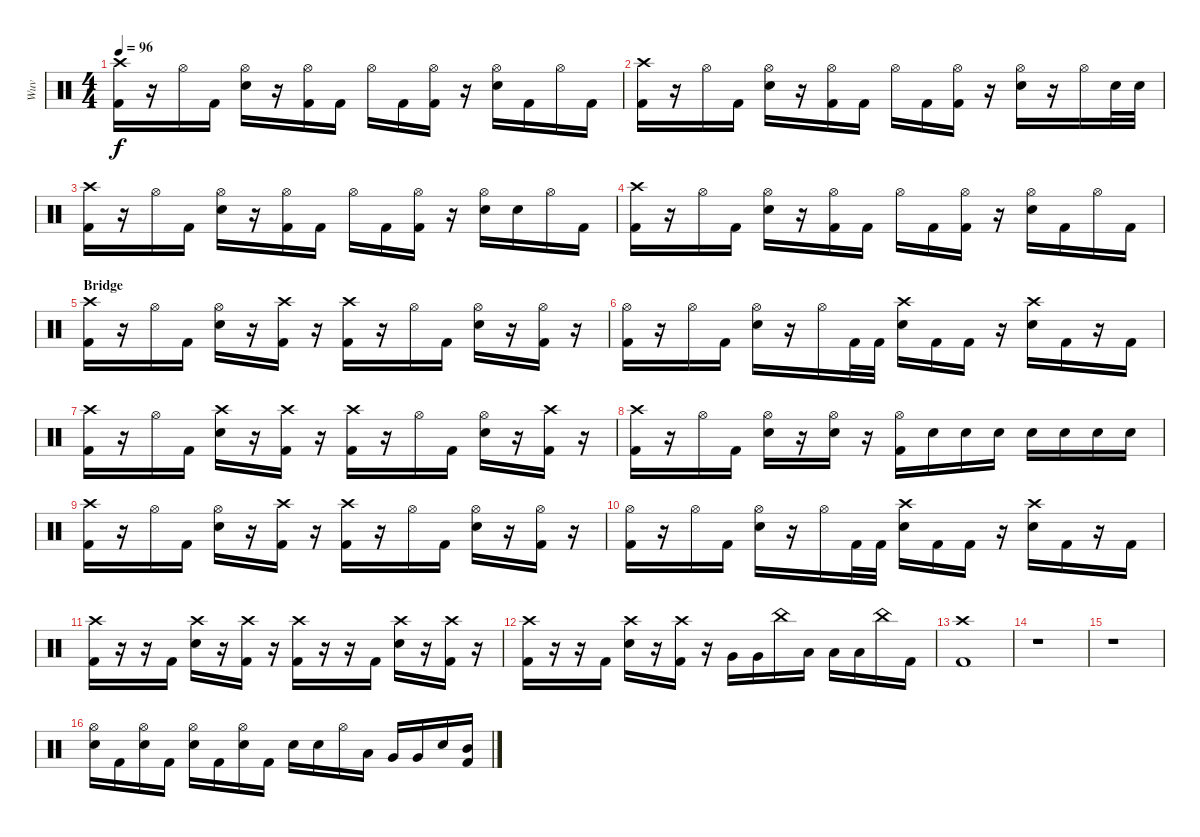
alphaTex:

\track ("Wuv" "Wuv") {instrument percussion}
\staff {score}
\articulation defaults
\ts (4 4)
\tempo 96
\clef neutral
\ks c
("Crash high (hit)" "Kick (hit) 2").16{dy f} r.16 "Hi-Hat (open)".16 "Kick (hit) 2".16 ("Hi-Hat (open)" "Snare (hit) 2").16 r.16 ("Hi-Hat (open)" "Kick (hit) 2").16 "Kick (hit) 2".16 "Hi-Hat (open)".16 "Kick (hit) 2".16 ("Hi-Hat (open)" "Kick (hit) 2").16 r.16 ("Hi-Hat (open)" "Snare (hit) 2").16 "Kick (hit) 2".16 "Hi-Hat (open)".16 "Kick (hit) 2".16 |
("Crash high (hit)" "Kick (hit) 2").16 r.16 "Hi-Hat (open)".16 "Kick (hit) 2".16 ("Hi-Hat (open)" "Snare (hit) 2").16 r.16 ("Hi-Hat (open)" "Kick (hit) 2").16 "Kick (hit) 2".16 "Hi-Hat (open)".16 "Kick (hit) 2".16 ("Hi-Hat (open)" "Kick (hit) 2").16 r.16 ("Hi-Hat (open)" "Snare (hit) 2").16 r.16 "Hi-Hat (open)".16 "Snare (hit) 2".32 "Snare (hit) 2".32 |
("Crash high (hit)" "Kick (hit) 2").16 r.16 "Hi-Hat (open)".16 "Kick (hit) 2".16 ("Hi-Hat (open)" "Snare (hit) 2").16 r.16 ("Hi-Hat (open)" "Kick (hit) 2").16 "Kick (hit) 2".16 "Hi-Hat (open)".16 "Kick (hit) 2".16 ("Hi-Hat (open)" "Kick (hit) 2").16 r.16 ("Hi-Hat (open)" "Snare (hit) 2").16 "Snare (hit) 2".16 "Hi-Hat (open)".16 "Kick (hit) 2".16 |
("Crash high (hit)" "Kick (hit) 2").16 r.16 "Hi-Hat (open)".16 "Kick (hit) 2".16 ("Hi-Hat (open)" "Snare (hit) 2").16 r.16 ("Hi-Hat (open)" "Kick (hit) 2").16 "Kick (hit) 2".16 "Hi-Hat (open)".16 "Kick (hit) 2".16 ("Hi-Hat (open)" "Kick (hit) 2").16 r.16 ("Hi-Hat (open)" "Snare (hit) 2").16 "Kick (hit) 2".16 "Hi-Hat (open)".16 "Kick (hit) 2".16 |
\section ("" "Bridge")
("Crash high (hit)" "Kick (hit) 2").16 r.16 "Hi-Hat (open)".16 "Kick (hit) 2".16 ("Hi-Hat (open)" "Snare (hit) 2").16 r.16 ("Crash high (hit)" "Kick (hit) 2").16 r.16 ("Crash high (hit)" "Kick (hit) 2").16 r.16 "Hi-Hat (open)".16 "Kick (hit) 2".16 ("Hi-Hat (open)" "Snare (hit) 2").16 r.16 ("Hi-Hat (open)" "Kick (hit) 2").16 r.16 |
("Hi-Hat (open)" "Kick (hit) 2").16 r.16 "Hi-Hat (open)".16 "Kick (hit) 2".16 ("Hi-Hat (open)" "Snare (hit) 2").16 r.16 "Hi-Hat (open)".16 "Kick (hit) 2".32 "Kick (hit) 2".32 ("Crash high (hit)" "Snare (hit) 2").16 "Kick (hit) 2".16 "Kick (hit) 2".16 r.16 ("Crash high (hit)" "Snare (hit) 2").16 "Kick (hit) 2".16 r.16 "Kick (hit) 2".16 |
("Crash high (hit)" "Kick (hit) 2").16 r.16 "Hi-Hat (open)".16 "Kick (hit) 2".16 ("Crash high (hit)" "Snare (hit) 2").16 r.16 ("Crash high (hit)" "Kick (hit) 2").16 r.16 ("Crash high (hit)" "Kick (hit) 2").16 r.16 "Hi-Hat (open)".16 "Kick (hit) 2".16 ("Hi-Hat (open)" "Snare (hit) 2").16 r.16 ("Crash high (hit)" "Kick (hit) 2").16 r.16 |
("Crash high (hit)" "Kick (hit) 2").16 r.16 "Hi-Hat (open)".16 "Kick (hit) 2".16 ("Hi-Hat (open)" "Snare (hit) 2").16 r.16 ("Hi-Hat (open)" "Snare (hit) 2").16 r.16 ("Hi-Hat (open)" "Kick (hit) 2").16 "Snare (hit) 2".16 "Snare (hit) 2".16 "Snare (hit) 2".16 "Snare (hit) 2".16 "Snare (hit) 2".16 "Snare (hit) 2".16 "Snare (hit) 2".16 |
("Crash high (hit)" "Kick (hit) 2").16 r.16 "Hi-Hat (open)".16 "Kick (hit) 2".16 ("Hi-Hat (open)" "Snare (hit) 2").16 r.16 ("Crash high (hit)" "Kick (hit) 2").16 r.16 ("Crash high (hit)" "Kick (hit) 2").16 r.16 "Hi-Hat (open)".16 "Kick (hit) 2".16 ("Hi-Hat (open)" "Snare (hit) 2").16 r.16 ("Hi-Hat (open)" "Kick (hit) 2").16 r.16 |
("Hi-Hat (open)" "Kick (hit) 2").16 r.16 "Hi-Hat (open)".16 "Kick (hit) 2".16 ("Hi-Hat (open)" "Snare (hit) 2").16 r.16 "Hi-Hat (open)".16 "Kick (hit) 2".32 "Kick (hit) 2".32 ("Crash high (hit)" "Snare (hit) 2").16 "Kick (hit) 2".16 "Kick (hit) 2".16 r.16 ("Crash high (hit)" "Snare (hit) 2").16 "Kick (hit) 2".16 r.16 "Kick (hit) 2".16 |
("Crash high (hit)" "Kick (hit) 2").16 r.16 r.16 "Kick (hit) 2".16 ("Crash high (hit)" "Snare (hit) 2").16 r.16 ("Crash high (hit)" "Kick (hit) 2").16 r.16 ("Crash high (hit)" "Kick (hit) 2").16 r.16 r.16 "Kick (hit) 2".16 ("Crash high (hit)" "Snare (hit) 2").16 r.16 ("Crash high (hit)" "Kick (hit) 2").16 r.16 |
("Crash high (hit)" "Kick (hit) 2").16 r.16 r.16 "Kick (hit) 2".16 ("Crash high (hit)" "Snare (hit) 2").16 r.16 ("Crash high (hit)" "Kick (hit) 2").16 r.16 "Very Low Tom (hit)".16 "Very Low Tom (hit)".16 "China (hit)".16 "Low Tom (hit)".16 "Low Tom (hit)".16 "Low Tom (hit)".16 "China (hit)".16 "Kick (hit) 2".16 |
("Crash high (hit)" "Kick (hit) 2").1 |
r.1 |
r.1 |
("Hi-Hat (open)" "Snare (hit) 2").16 "Kick (hit) 2".16 ("Hi-Hat (open)" "Snare (hit) 2").16 "Kick (hit) 2".16 ("Hi-Hat (open)" "Snare (hit) 2").16 "Kick (hit) 2".16 ("Hi-Hat (open)" "Snare (hit) 2").16 "Kick (hit) 2".16 "Snare (hit) 2".16 "Snare (hit) 2".16 "Hi-Hat (open)".16 "Low Floor Tom (hit)".16 "Very Low Tom (hit)".16 "Very Low Tom (hit)".16 "Snare (hit) 2".16 ("Mid Tom (hit)" "Kick (hit) 2").16
